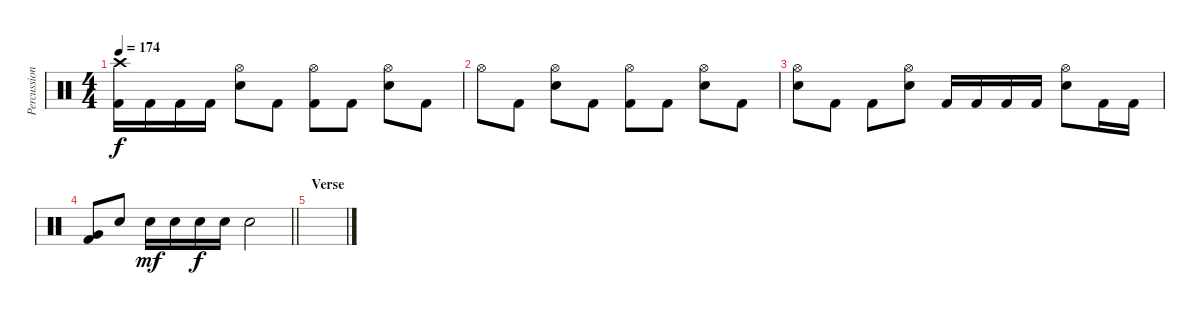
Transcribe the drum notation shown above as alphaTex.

\track ("Percussion" "Percussion") {instrument percussion}
\staff {score}
\articulation defaults
\ts (4 4)
\tempo 174
\clef neutral
\ks c
("Crash high (hit)" "Kick (hit) 2").16{dy f} "Kick (hit) 2".16 "Kick (hit) 2".16 "Kick (hit) 2".16 ("Hi-Hat (open)" "Electric Snare (hit)").8 "Kick (hit) 2".8 ("Hi-Hat (open)" "Kick (hit) 2").8 "Kick (hit) 2".8 ("Hi-Hat (open)" "Electric Snare (hit)").8 "Kick (hit) 2".8 |
"Hi-Hat (open)".8 "Kick (hit) 2".8 ("Hi-Hat (open)" "Electric Snare (hit)").8 "Kick (hit) 2".8 ("Hi-Hat (open)" "Kick (hit) 2").8 "Kick (hit) 2".8 ("Hi-Hat (open)" "Electric Snare (hit)").8 "Kick (hit) 2".8 |
("Hi-Hat (open)" "Electric Snare (hit)").8 "Kick (hit) 2".8 "Kick (hit) 2".8 ("Hi-Hat (open)" "Electric Snare (hit)").8 "Kick (hit) 2".16 "Kick (hit) 2".16 "Kick (hit) 2".16 "Kick (hit) 2".16 ("Hi-Hat (open)" "Electric Snare (hit)").8 "Kick (hit) 2".16 "Kick (hit) 2".16 |
\barLineRight lightlight
("Very Low Tom (hit)" "Kick (hit) 2").8 "Electric Snare (hit)".8 "Electric Snare (hit)".16{dy mf} "Electric Snare (hit)".16 "Electric Snare (hit)".16{dy f} "Electric Snare (hit)".16 "Electric Snare (hit)".2 |
\section ("" "Verse")
